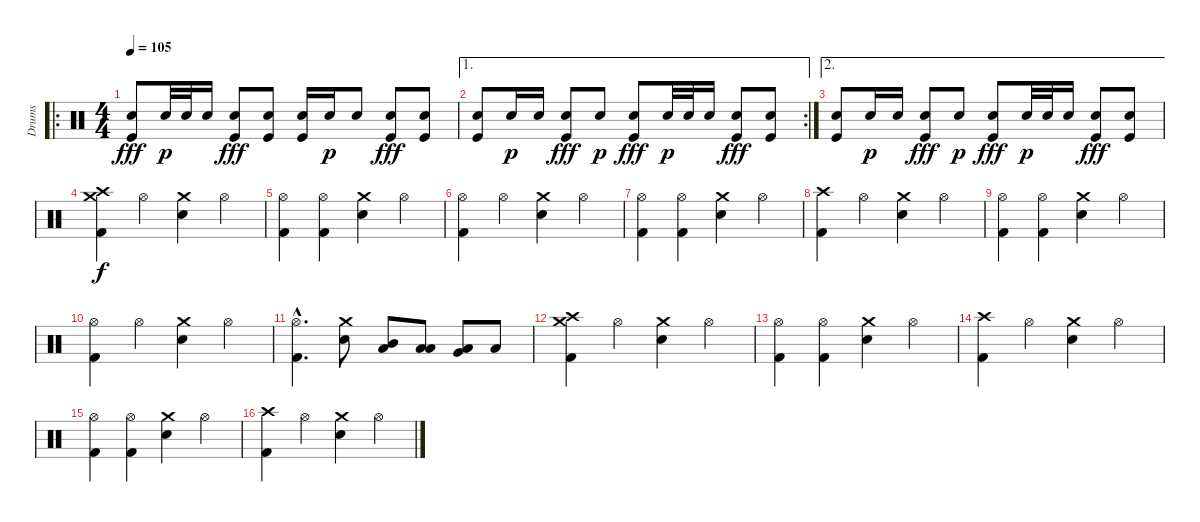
\track ("Drums" "Drums") {instrument percussion}
\staff {score}
\articulation defaults
\ro
\ts (4 4)
\tempo 105
\clef neutral
\ks c
("Electric Snare (hit)" "Kick (hit)").8{dy fff} "Electric Snare (hit)".32{dy p} "Electric Snare (hit)".32 "Electric Snare (hit)".16 ("Electric Snare (hit)" "Kick (hit)").8{dy fff} ("Electric Snare (hit)" "Kick (hit)").8 ("Electric Snare (hit)" "Kick (hit)").16 "Electric Snare (hit)".16{dy p} "Electric Snare (hit)".8 ("Electric Snare (hit)" "Kick (hit)").8{dy fff} ("Electric Snare (hit)" "Kick (hit)").8 |
\ae 1
\rc 2
("Electric Snare (hit)" "Kick (hit)").8 "Electric Snare (hit)".16{dy p} "Electric Snare (hit)".16 ("Electric Snare (hit)" "Kick (hit)").8{dy fff} "Electric Snare (hit)".8{dy p} ("Electric Snare (hit)" "Kick (hit)").8{dy fff} "Electric Snare (hit)".32{dy p} "Electric Snare (hit)".32 "Electric Snare (hit)".16 ("Electric Snare (hit)" "Kick (hit)").8{dy fff} ("Electric Snare (hit)" "Kick (hit)").8 |
\ae 2
("Electric Snare (hit)" "Kick (hit)").8 "Electric Snare (hit)".16{dy p} "Electric Snare (hit)".16 ("Electric Snare (hit)" "Kick (hit)").8{dy fff} "Electric Snare (hit)".8{dy p} ("Electric Snare (hit)" "Kick (hit)").8{dy fff} "Electric Snare (hit)".32{dy p} "Electric Snare (hit)".32 "Electric Snare (hit)".16 ("Electric Snare (hit)" "Kick (hit)").8{dy fff} ("Electric Snare (hit)" "Kick (hit)").8 |
("Crash high (hit)" "Crash medium (hit)" "Kick (hit) 2").4{dy f} "Hi-Hat (open)".4 ("Crash medium (hit)" "Snare (hit) 2").4 "Hi-Hat (open)".4 |
("Hi-Hat (open)" "Kick (hit) 2").4 ("Hi-Hat (open)" "Kick (hit) 2").4 ("Crash medium (hit)" "Snare (hit) 2").4 "Hi-Hat (open)".4 |
("Hi-Hat (open)" "Kick (hit) 2").4 "Hi-Hat (open)".4 ("Crash medium (hit)" "Snare (hit) 2").4 "Hi-Hat (open)".4 |
("Hi-Hat (open)" "Kick (hit) 2").4 ("Hi-Hat (open)" "Kick (hit) 2").4 ("Crash medium (hit)" "Snare (hit) 2").4 "Hi-Hat (open)".4 |
("Crash high (hit)" "Kick (hit) 2").4 "Hi-Hat (open)".4 ("Crash medium (hit)" "Snare (hit) 2").4 "Hi-Hat (open)".4 |
("Hi-Hat (open)" "Kick (hit) 2").4 ("Hi-Hat (open)" "Kick (hit) 2").4 ("Crash medium (hit)" "Snare (hit) 2").4 "Hi-Hat (open)".4 |
("Hi-Hat (open)" "Kick (hit) 2").4 "Hi-Hat (open)".4 ("Crash medium (hit)" "Snare (hit) 2").4 "Hi-Hat (open)".4 |
("Hi-Hat (open)"{hac} "Kick (hit) 2"{hac}).4{d} ("Crash medium (hit)" "Snare (hit) 2").8 ("Mid Tom (hit)" "Low Floor Tom (hit)").8 ("Low Tom (hit)" "Low Floor Tom (hit)").8 ("Very Low Tom (hit)" "Low Floor Tom (hit)").8 "Low Floor Tom (hit)".8 |
("Crash high (hit)" "Crash medium (hit)" "Kick (hit) 2").4 "Hi-Hat (open)".4 ("Crash medium (hit)" "Snare (hit) 2").4 "Hi-Hat (open)".4 |
("Hi-Hat (open)" "Kick (hit) 2").4 ("Hi-Hat (open)" "Kick (hit) 2").4 ("Crash medium (hit)" "Snare (hit) 2").4 "Hi-Hat (open)".4 |
("Crash high (hit)" "Kick (hit) 2").4 "Hi-Hat (open)".4 ("Crash medium (hit)" "Snare (hit) 2").4 "Hi-Hat (open)".4 |
("Hi-Hat (open)" "Kick (hit) 2").4 ("Hi-Hat (open)" "Kick (hit) 2").4 ("Crash medium (hit)" "Snare (hit) 2").4 "Hi-Hat (open)".4 |
("Crash high (hit)" "Kick (hit) 2").4 "Hi-Hat (open)".4 ("Crash medium (hit)" "Snare (hit) 2").4 "Hi-Hat (open)".4
